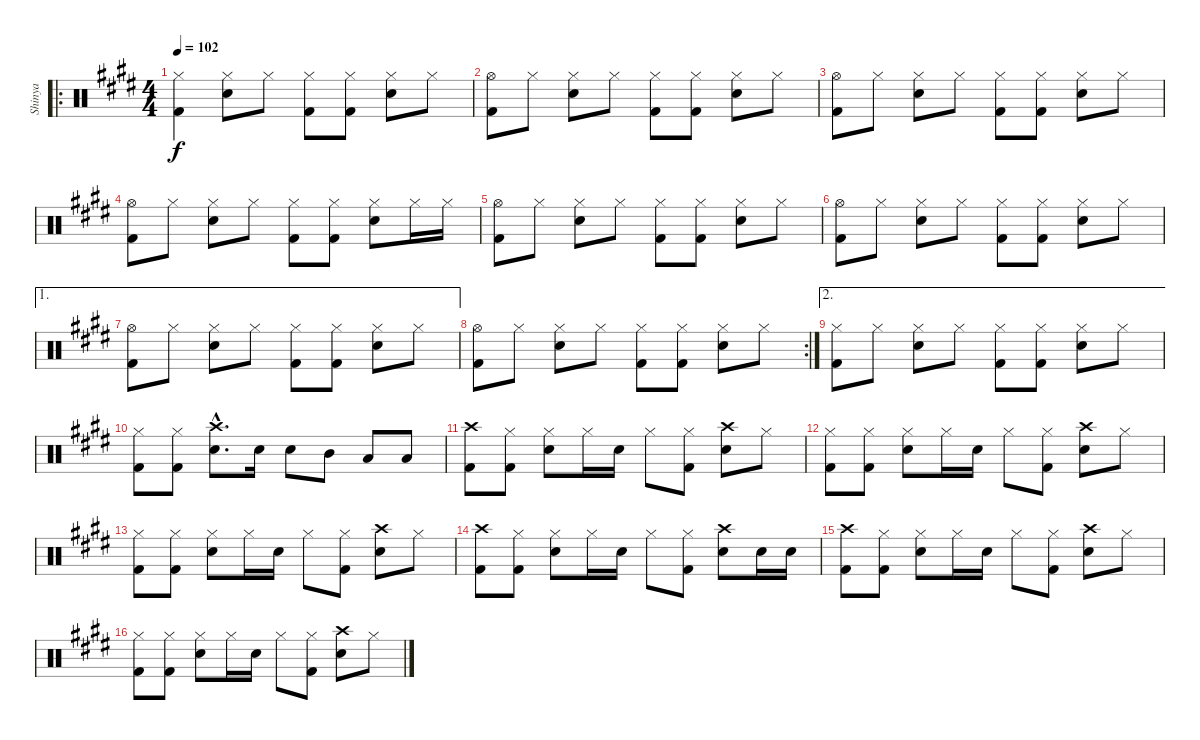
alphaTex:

\track ("Shinya" "Shinya") {instrument percussion}
\staff {score}
\articulation defaults
\ro
\ts (4 4)
\tempo 102
\clef neutral
\ks e
("Hi-Hat (closed)" "Kick (hit) 2").4{dy f} ("Hi-Hat (closed)" "Snare (hit) 2").8 "Hi-Hat (closed)".8 ("Hi-Hat (closed)" "Kick (hit) 2").8 ("Hi-Hat (closed)" "Kick (hit) 2").8 ("Hi-Hat (closed)" "Snare (hit) 2").8 "Hi-Hat (closed)".8 |
("Hi-Hat (open)" "Kick (hit) 2").8 "Hi-Hat (closed)".8 ("Hi-Hat (closed)" "Snare (hit) 2").8 "Hi-Hat (closed)".8 ("Hi-Hat (closed)" "Kick (hit) 2").8 ("Hi-Hat (closed)" "Kick (hit) 2").8 ("Hi-Hat (closed)" "Snare (hit) 2").8 "Hi-Hat (closed)".8 |
("Hi-Hat (open)" "Kick (hit) 2").8 "Hi-Hat (closed)".8 ("Hi-Hat (closed)" "Snare (hit) 2").8 "Hi-Hat (closed)".8 ("Hi-Hat (closed)" "Kick (hit) 2").8 ("Hi-Hat (closed)" "Kick (hit) 2").8 ("Hi-Hat (closed)" "Snare (hit) 2").8 "Hi-Hat (closed)".8 |
("Hi-Hat (open)" "Kick (hit) 2").8 "Hi-Hat (closed)".8 ("Hi-Hat (closed)" "Snare (hit) 2").8 "Hi-Hat (closed)".8 ("Hi-Hat (closed)" "Kick (hit) 2").8 ("Hi-Hat (closed)" "Kick (hit) 2").8 ("Hi-Hat (closed)" "Snare (hit) 2").8 "Hi-Hat (closed)".16 "Hi-Hat (closed)".16 |
("Hi-Hat (open)" "Kick (hit) 2").8 "Hi-Hat (closed)".8 ("Hi-Hat (closed)" "Snare (hit) 2").8 "Hi-Hat (closed)".8 ("Hi-Hat (closed)" "Kick (hit) 2").8 ("Hi-Hat (closed)" "Kick (hit) 2").8 ("Hi-Hat (closed)" "Snare (hit) 2").8 "Hi-Hat (closed)".8 |
("Hi-Hat (open)" "Kick (hit) 2").8 "Hi-Hat (closed)".8 ("Hi-Hat (closed)" "Snare (hit) 2").8 "Hi-Hat (closed)".8 ("Hi-Hat (closed)" "Kick (hit) 2").8 ("Hi-Hat (closed)" "Kick (hit) 2").8 ("Hi-Hat (closed)" "Snare (hit) 2").8 "Hi-Hat (closed)".8 |
\ae 1
("Hi-Hat (open)" "Kick (hit) 2").8 "Hi-Hat (closed)".8 ("Hi-Hat (closed)" "Snare (hit) 2").8 "Hi-Hat (closed)".8 ("Hi-Hat (closed)" "Kick (hit) 2").8 ("Hi-Hat (closed)" "Kick (hit) 2").8 ("Hi-Hat (closed)" "Snare (hit) 2").8 "Hi-Hat (closed)".8 |
\rc 2
("Hi-Hat (open)" "Kick (hit) 2").8 "Hi-Hat (closed)".8 ("Hi-Hat (closed)" "Snare (hit) 2").8 "Hi-Hat (closed)".8 ("Hi-Hat (closed)" "Kick (hit) 2").8 ("Hi-Hat (closed)" "Kick (hit) 2").8 ("Hi-Hat (closed)" "Snare (hit) 2").8 "Hi-Hat (closed)".8 |
\ae 2
("Hi-Hat (closed)" "Kick (hit) 2").8 "Hi-Hat (closed)".8 ("Hi-Hat (closed)" "Snare (hit) 2").8 "Hi-Hat (closed)".8 ("Hi-Hat (closed)" "Kick (hit) 2").8 ("Hi-Hat (closed)" "Kick (hit) 2").8 ("Hi-Hat (closed)" "Snare (hit) 2").8 "Hi-Hat (closed)".8 |
("Hi-Hat (closed)" "Kick (hit) 2").8 ("Hi-Hat (closed)" "Kick (hit) 2").8 ("Crash high (hit)"{hac} "Snare (hit) 2"{hac}).8{d} "Snare (hit) 2".16 "Snare (hit) 2".8 "Mid Tom (hit)".8 "Low Tom (hit)".8 "Low Tom (hit)".8 |
("Crash high (hit)" "Kick (hit) 2").8 ("Hi-Hat (closed)" "Kick (hit) 2").8 ("Hi-Hat (closed)" "Snare (hit) 2").8 "Hi-Hat (closed)".16 "Snare (hit) 2".16 "Hi-Hat (closed)".8 ("Hi-Hat (closed)" "Kick (hit) 2").8 ("Crash high (hit)" "Snare (hit) 2").8 "Hi-Hat (closed)".8 |
("Hi-Hat (closed)" "Kick (hit) 2").8 ("Hi-Hat (closed)" "Kick (hit) 2").8 ("Hi-Hat (closed)" "Snare (hit) 2").8 "Hi-Hat (closed)".16 "Snare (hit) 2".16 "Hi-Hat (closed)".8 ("Hi-Hat (closed)" "Kick (hit) 2").8 ("Crash high (hit)" "Snare (hit) 2").8 "Hi-Hat (closed)".8 |
("Hi-Hat (closed)" "Kick (hit) 2").8 ("Hi-Hat (closed)" "Kick (hit) 2").8 ("Hi-Hat (closed)" "Snare (hit) 2").8 "Hi-Hat (closed)".16 "Snare (hit) 2".16 "Hi-Hat (closed)".8 ("Hi-Hat (closed)" "Kick (hit) 2").8 ("Crash high (hit)" "Snare (hit) 2").8 "Hi-Hat (closed)".8 |
("Crash high (hit)" "Kick (hit) 2").8 ("Hi-Hat (closed)" "Kick (hit) 2").8 ("Hi-Hat (closed)" "Snare (hit) 2").8 "Hi-Hat (closed)".16 "Snare (hit) 2".16 "Hi-Hat (closed)".8 ("Hi-Hat (closed)" "Kick (hit) 2").8 ("Crash high (hit)" "Snare (hit) 2").8 "Snare (hit) 2".16 "Snare (hit) 2".16 |
("Crash high (hit)" "Kick (hit) 2").8 ("Hi-Hat (closed)" "Kick (hit) 2").8 ("Hi-Hat (closed)" "Snare (hit) 2").8 "Hi-Hat (closed)".16 "Snare (hit) 2".16 "Hi-Hat (closed)".8 ("Hi-Hat (closed)" "Kick (hit) 2").8 ("Crash high (hit)" "Snare (hit) 2").8 "Hi-Hat (closed)".8 |
("Hi-Hat (closed)" "Kick (hit) 2").8 ("Hi-Hat (closed)" "Kick (hit) 2").8 ("Hi-Hat (closed)" "Snare (hit) 2").8 "Hi-Hat (closed)".16 "Snare (hit) 2".16 "Hi-Hat (closed)".8 ("Hi-Hat (closed)" "Kick (hit) 2").8 ("Crash high (hit)" "Snare (hit) 2").8 "Hi-Hat (closed)".8
